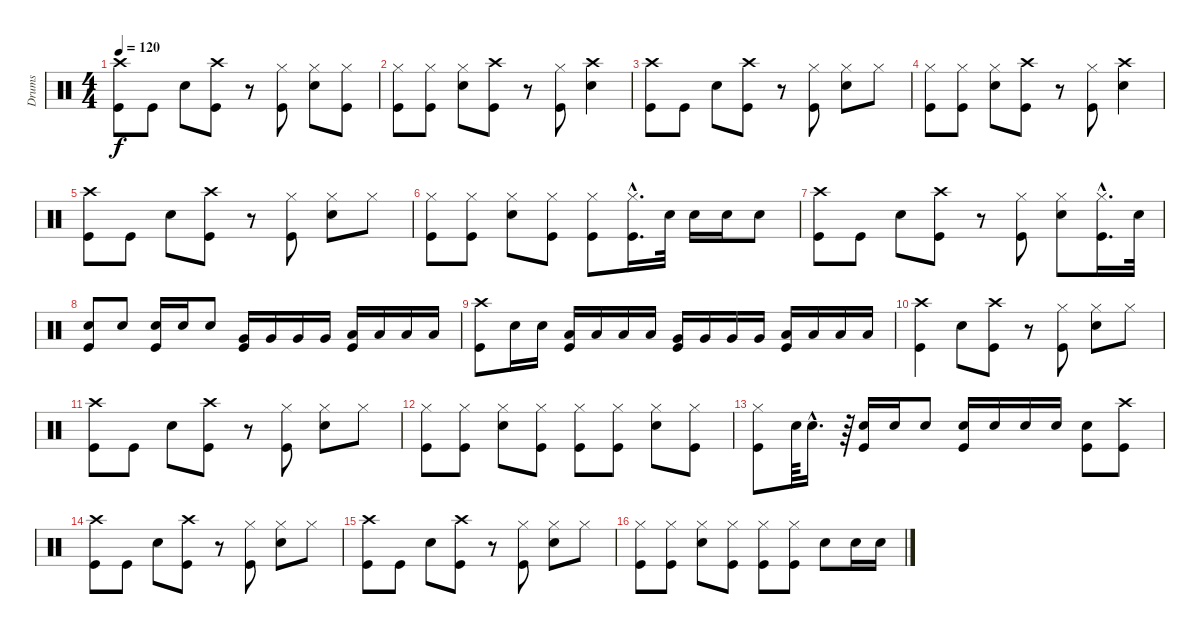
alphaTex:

\track ("Drums" "Drums") {instrument percussion}
\staff {score}
\articulation defaults
\ts (4 4)
\tempo 120
\clef neutral
\ks c
("Crash high (hit)" "Kick (hit)").8{dy f} "Kick (hit)".8 "Snare (hit) 2".8 ("Crash high (hit)" "Kick (hit)").8 r.8 ("Hi-Hat (closed)" "Kick (hit)").8 ("Hi-Hat (closed)" "Snare (hit) 2").8 ("Hi-Hat (closed)" "Kick (hit)").8 |
("Hi-Hat (closed)" "Kick (hit)").8 ("Hi-Hat (closed)" "Kick (hit)").8 ("Hi-Hat (closed)" "Snare (hit) 2").8 ("Crash high (hit)" "Kick (hit)").8 r.8 ("Hi-Hat (closed)" "Kick (hit)").8 ("Crash high (hit)" "Snare (hit) 2").4 |
("Crash high (hit)" "Kick (hit)").8 "Kick (hit)".8 "Snare (hit) 2".8 ("Crash high (hit)" "Kick (hit)").8 r.8 ("Hi-Hat (closed)" "Kick (hit)").8 ("Hi-Hat (closed)" "Snare (hit) 2").8 "Hi-Hat (closed)".8 |
("Hi-Hat (closed)" "Kick (hit)").8 ("Hi-Hat (closed)" "Kick (hit)").8 ("Hi-Hat (closed)" "Snare (hit) 2").8 ("Crash high (hit)" "Kick (hit)").8 r.8 ("Hi-Hat (closed)" "Kick (hit)").8 ("Crash high (hit)" "Snare (hit) 2").4 |
("Crash high (hit)" "Kick (hit)").8 "Kick (hit)".8 "Snare (hit) 2".8 ("Crash high (hit)" "Kick (hit)").8 r.8 ("Hi-Hat (closed)" "Kick (hit)").8 ("Hi-Hat (closed)" "Snare (hit) 2").8 "Hi-Hat (closed)".8 |
("Hi-Hat (closed)" "Kick (hit)").8 ("Hi-Hat (closed)" "Kick (hit)").8 ("Hi-Hat (closed)" "Snare (hit) 2").8 ("Hi-Hat (closed)" "Kick (hit)").8 ("Hi-Hat (closed)" "Kick (hit)").8 ("Hi-Hat (closed)"{hac} "Kick (hit)"{hac}).16{d} "Snare (hit) 2".32 "Snare (hit) 2".16 "Snare (hit) 2".16 "Snare (hit) 2".8 |
("Crash high (hit)" "Kick (hit)").8 "Kick (hit)".8 "Snare (hit) 2".8 ("Crash high (hit)" "Kick (hit)").8 r.8 ("Hi-Hat (closed)" "Kick (hit)").8 ("Hi-Hat (closed)" "Snare (hit) 2").8 ("Hi-Hat (closed)"{hac} "Kick (hit)"{hac}).16{d} "Snare (hit) 2".32 |
("Snare (hit) 2" "Kick (hit)").8 "Snare (hit) 2".8 ("Snare (hit) 2" "Kick (hit)").16 "Snare (hit) 2".16 "Snare (hit) 2".8 ("Kick (hit)" "Very Low Tom (hit)").16 "Very Low Tom (hit)".16 "Very Low Tom (hit)".16 "Very Low Tom (hit)".16 ("Kick (hit)" "Low Floor Tom (hit)").16 "Low Floor Tom (hit)".16 "Low Floor Tom (hit)".16 "Low Floor Tom (hit)".16 |
("Crash high (hit)" "Kick (hit)").8 "Snare (hit) 2".16 "Snare (hit) 2".16 ("Kick (hit)" "Low Tom (hit)").16 "Low Tom (hit)".16 "Low Tom (hit)".16 "Low Tom (hit)".16 ("Kick (hit)" "Very Low Tom (hit)").16 "Very Low Tom (hit)".16 "Very Low Tom (hit)".16 "Very Low Tom (hit)".16 ("Kick (hit)" "Low Floor Tom (hit)").16 "Low Floor Tom (hit)".16 "Low Floor Tom (hit)".16 "Low Floor Tom (hit)".16 |
("Crash high (hit)" "Kick (hit)").4 "Snare (hit) 2".8 ("Crash high (hit)" "Kick (hit)").8 r.8 ("Hi-Hat (closed)" "Kick (hit)").8 ("Hi-Hat (closed)" "Snare (hit) 2").8 "Hi-Hat (closed)".8 |
("Crash high (hit)" "Kick (hit)").8 "Kick (hit)".8 "Snare (hit) 2".8 ("Crash high (hit)" "Kick (hit)").8 r.8 ("Hi-Hat (closed)" "Kick (hit)").8 ("Hi-Hat (closed)" "Snare (hit) 2").8 "Hi-Hat (closed)".8 |
("Hi-Hat (closed)" "Kick (hit)").8 ("Hi-Hat (closed)" "Kick (hit)").8 ("Hi-Hat (closed)" "Snare (hit) 2").8 ("Hi-Hat (closed)" "Kick (hit)").8 ("Hi-Hat (closed)" "Kick (hit)").8 ("Hi-Hat (closed)" "Kick (hit)").8 ("Hi-Hat (closed)" "Snare (hit) 2").8 ("Hi-Hat (closed)" "Kick (hit)").8 |
("Hi-Hat (closed)" "Kick (hit)").8 "Snare (hit) 2".64 "Snare (hit) 2"{hac}.16{d} r.64 ("Snare (hit) 2" "Kick (hit)").16 "Snare (hit) 2".16 "Snare (hit) 2".8 ("Snare (hit) 2" "Kick (hit)").16 "Snare (hit) 2".16 "Snare (hit) 2".16 "Snare (hit) 2".16 ("Snare (hit) 2" "Kick (hit)").8 ("Crash high (hit)" "Kick (hit)").8 |
("Crash high (hit)" "Kick (hit)").8 "Kick (hit)".8 "Snare (hit) 2".8 ("Crash high (hit)" "Kick (hit)").8 r.8 ("Hi-Hat (closed)" "Kick (hit)").8 ("Hi-Hat (closed)" "Snare (hit) 2").8 "Hi-Hat (closed)".8 |
("Crash high (hit)" "Kick (hit)").8 "Kick (hit)".8 "Snare (hit) 2".8 ("Crash high (hit)" "Kick (hit)").8 r.8 ("Hi-Hat (closed)" "Kick (hit)").8 ("Hi-Hat (closed)" "Snare (hit) 2").8 "Hi-Hat (closed)".8 |
("Hi-Hat (closed)" "Kick (hit)").8 ("Hi-Hat (closed)" "Kick (hit)").8 ("Hi-Hat (closed)" "Snare (hit) 2").8 ("Hi-Hat (closed)" "Kick (hit)").8 ("Hi-Hat (closed)" "Kick (hit)").8 ("Hi-Hat (closed)" "Kick (hit)").8 "Snare (hit) 2".8 "Snare (hit) 2".16 "Snare (hit) 2".16
